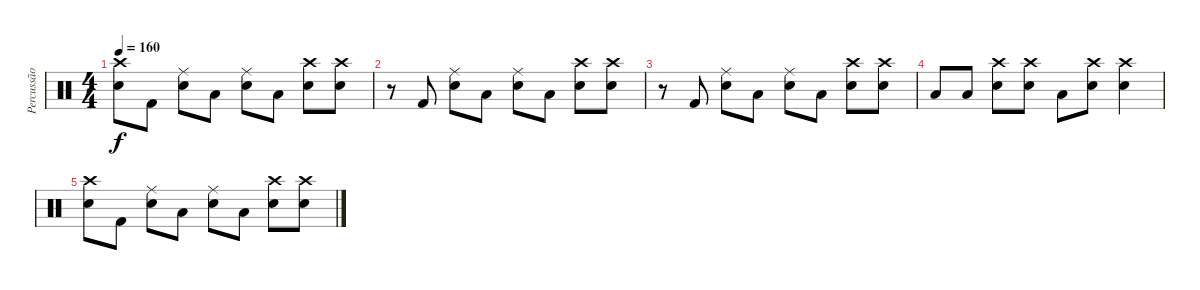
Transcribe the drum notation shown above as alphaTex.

\track ("Percussão" "Percussão") {instrument percussion}
\staff {score}
\articulation defaults
\ts (4 4)
\tempo 160
\clef neutral
\ks c
("Crash high (hit)" "Snare (hit) 2").8{dy f} "Kick (hit) 2".8 ("Ride (middle)" "Snare (hit) 2").8 "Low Floor Tom (hit)".8 ("Ride (middle)" "Snare (hit) 2").8 "Low Floor Tom (hit)".8 ("Crash high (hit)" "Snare (hit) 2").8 ("Crash high (hit)" "Snare (hit) 2").8 |
r.8 "Kick (hit) 2".8 ("Ride (middle)" "Snare (hit) 2").8 "Low Floor Tom (hit)".8 ("Ride (middle)" "Snare (hit) 2").8 "Low Floor Tom (hit)".8 ("Crash high (hit)" "Snare (hit) 2").8 ("Crash high (hit)" "Snare (hit) 2").8 |
r.8 "Kick (hit) 2".8 ("Ride (middle)" "Snare (hit) 2").8 "Low Floor Tom (hit)".8 ("Ride (middle)" "Snare (hit) 2").8 "Low Floor Tom (hit)".8 ("Crash high (hit)" "Snare (hit) 2").8 ("Crash high (hit)" "Snare (hit) 2").8 |
"Low Floor Tom (hit)".8 "Low Floor Tom (hit)".8 ("Crash high (hit)" "Snare (hit) 2").8 ("Crash high (hit)" "Snare (hit) 2").8 "Low Floor Tom (hit)".8 ("Crash high (hit)" "Snare (hit) 2").8 ("Crash high (hit)" "Snare (hit) 2").4 |
("Crash high (hit)" "Snare (hit) 2").8 "Kick (hit) 2".8 ("Ride (middle)" "Snare (hit) 2").8 "Low Floor Tom (hit)".8 ("Ride (middle)" "Snare (hit) 2").8 "Low Floor Tom (hit)".8 ("Crash high (hit)" "Snare (hit) 2").8 ("Crash high (hit)" "Snare (hit) 2").8
